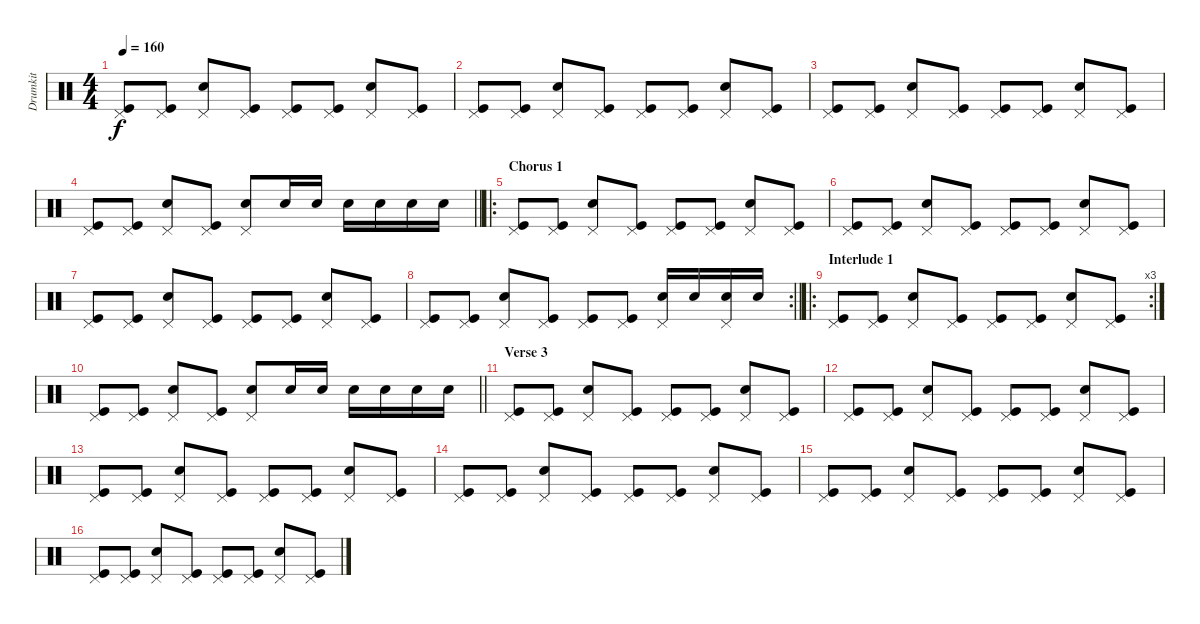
\track ("Drumkit" "Drumkit") {instrument percussion}
\staff {score}
\articulation defaults
\ts (4 4)
\tempo 160
\clef neutral
\ks c
("Pedal Hi-Hat (hit)" "Kick (hit)").8{dy f} ("Pedal Hi-Hat (hit)" "Kick (hit)").8 ("Pedal Hi-Hat (hit)" "Snare (hit) 2").8 ("Pedal Hi-Hat (hit)" "Kick (hit)").8 ("Pedal Hi-Hat (hit)" "Kick (hit)").8 ("Pedal Hi-Hat (hit)" "Kick (hit)").8 ("Pedal Hi-Hat (hit)" "Snare (hit) 2").8 ("Pedal Hi-Hat (hit)" "Kick (hit)").8 |
("Pedal Hi-Hat (hit)" "Kick (hit)").8 ("Pedal Hi-Hat (hit)" "Kick (hit)").8 ("Pedal Hi-Hat (hit)" "Snare (hit) 2").8 ("Pedal Hi-Hat (hit)" "Kick (hit)").8 ("Pedal Hi-Hat (hit)" "Kick (hit)").8 ("Pedal Hi-Hat (hit)" "Kick (hit)").8 ("Pedal Hi-Hat (hit)" "Snare (hit) 2").8 ("Pedal Hi-Hat (hit)" "Kick (hit)").8 |
("Pedal Hi-Hat (hit)" "Kick (hit)").8 ("Pedal Hi-Hat (hit)" "Kick (hit)").8 ("Pedal Hi-Hat (hit)" "Snare (hit) 2").8 ("Pedal Hi-Hat (hit)" "Kick (hit)").8 ("Pedal Hi-Hat (hit)" "Kick (hit)").8 ("Pedal Hi-Hat (hit)" "Kick (hit)").8 ("Pedal Hi-Hat (hit)" "Snare (hit) 2").8 ("Pedal Hi-Hat (hit)" "Kick (hit)").8 |
\barLineRight lightlight
("Pedal Hi-Hat (hit)" "Kick (hit)").8 ("Pedal Hi-Hat (hit)" "Kick (hit)").8 ("Pedal Hi-Hat (hit)" "Snare (hit) 2").8 ("Pedal Hi-Hat (hit)" "Kick (hit)").8 ("Pedal Hi-Hat (hit)" "Snare (hit) 2").8 "Snare (hit) 2".16 "Snare (hit) 2".16 "Snare (hit) 2".16 "Snare (hit) 2".16 "Snare (hit) 2".16 "Snare (hit) 2".16 |
\ro
\section ("" "Chorus 1")
("Pedal Hi-Hat (hit)" "Kick (hit)").8 ("Pedal Hi-Hat (hit)" "Kick (hit)").8 ("Pedal Hi-Hat (hit)" "Snare (hit) 2").8 ("Pedal Hi-Hat (hit)" "Kick (hit)").8 ("Pedal Hi-Hat (hit)" "Kick (hit)").8 ("Pedal Hi-Hat (hit)" "Kick (hit)").8 ("Pedal Hi-Hat (hit)" "Snare (hit) 2").8 ("Pedal Hi-Hat (hit)" "Kick (hit)").8 |
("Pedal Hi-Hat (hit)" "Kick (hit)").8 ("Pedal Hi-Hat (hit)" "Kick (hit)").8 ("Pedal Hi-Hat (hit)" "Snare (hit) 2").8 ("Pedal Hi-Hat (hit)" "Kick (hit)").8 ("Pedal Hi-Hat (hit)" "Kick (hit)").8 ("Pedal Hi-Hat (hit)" "Kick (hit)").8 ("Pedal Hi-Hat (hit)" "Snare (hit) 2").8 ("Pedal Hi-Hat (hit)" "Kick (hit)").8 |
("Pedal Hi-Hat (hit)" "Kick (hit)").8 ("Pedal Hi-Hat (hit)" "Kick (hit)").8 ("Pedal Hi-Hat (hit)" "Snare (hit) 2").8 ("Pedal Hi-Hat (hit)" "Kick (hit)").8 ("Pedal Hi-Hat (hit)" "Kick (hit)").8 ("Pedal Hi-Hat (hit)" "Kick (hit)").8 ("Pedal Hi-Hat (hit)" "Snare (hit) 2").8 ("Pedal Hi-Hat (hit)" "Kick (hit)").8 |
\rc 2
\barLineRight lightlight
("Pedal Hi-Hat (hit)" "Kick (hit)").8 ("Pedal Hi-Hat (hit)" "Kick (hit)").8 ("Pedal Hi-Hat (hit)" "Snare (hit) 2").8 ("Pedal Hi-Hat (hit)" "Kick (hit)").8 ("Pedal Hi-Hat (hit)" "Kick (hit)").8 ("Pedal Hi-Hat (hit)" "Kick (hit)").8 ("Pedal Hi-Hat (hit)" "Snare (hit) 2").16 "Snare (hit) 2".16 ("Pedal Hi-Hat (hit)" "Snare (hit) 2").16 "Snare (hit) 2".16 |
\ro
\rc 3
\section ("" "Interlude 1")
("Pedal Hi-Hat (hit)" "Kick (hit)").8 ("Pedal Hi-Hat (hit)" "Kick (hit)").8 ("Pedal Hi-Hat (hit)" "Snare (hit) 2").8 ("Pedal Hi-Hat (hit)" "Kick (hit)").8 ("Pedal Hi-Hat (hit)" "Kick (hit)").8 ("Pedal Hi-Hat (hit)" "Kick (hit)").8 ("Pedal Hi-Hat (hit)" "Snare (hit) 2").8 ("Pedal Hi-Hat (hit)" "Kick (hit)").8 |
\barLineRight lightlight
("Pedal Hi-Hat (hit)" "Kick (hit)").8 ("Pedal Hi-Hat (hit)" "Kick (hit)").8 ("Pedal Hi-Hat (hit)" "Snare (hit) 2").8 ("Pedal Hi-Hat (hit)" "Kick (hit)").8 ("Pedal Hi-Hat (hit)" "Snare (hit) 2").8 "Snare (hit) 2".16 "Snare (hit) 2".16 "Snare (hit) 2".16 "Snare (hit) 2".16 "Snare (hit) 2".16 "Snare (hit) 2".16 |
\section ("" "Verse 3")
("Pedal Hi-Hat (hit)" "Kick (hit)").8 ("Pedal Hi-Hat (hit)" "Kick (hit)").8 ("Pedal Hi-Hat (hit)" "Snare (hit) 2").8 ("Pedal Hi-Hat (hit)" "Kick (hit)").8 ("Pedal Hi-Hat (hit)" "Kick (hit)").8 ("Pedal Hi-Hat (hit)" "Kick (hit)").8 ("Pedal Hi-Hat (hit)" "Snare (hit) 2").8 ("Pedal Hi-Hat (hit)" "Kick (hit)").8 |
("Pedal Hi-Hat (hit)" "Kick (hit)").8 ("Pedal Hi-Hat (hit)" "Kick (hit)").8 ("Pedal Hi-Hat (hit)" "Snare (hit) 2").8 ("Pedal Hi-Hat (hit)" "Kick (hit)").8 ("Pedal Hi-Hat (hit)" "Kick (hit)").8 ("Pedal Hi-Hat (hit)" "Kick (hit)").8 ("Pedal Hi-Hat (hit)" "Snare (hit) 2").8 ("Pedal Hi-Hat (hit)" "Kick (hit)").8 |
("Pedal Hi-Hat (hit)" "Kick (hit)").8 ("Pedal Hi-Hat (hit)" "Kick (hit)").8 ("Pedal Hi-Hat (hit)" "Snare (hit) 2").8 ("Pedal Hi-Hat (hit)" "Kick (hit)").8 ("Pedal Hi-Hat (hit)" "Kick (hit)").8 ("Pedal Hi-Hat (hit)" "Kick (hit)").8 ("Pedal Hi-Hat (hit)" "Snare (hit) 2").8 ("Pedal Hi-Hat (hit)" "Kick (hit)").8 |
("Pedal Hi-Hat (hit)" "Kick (hit)").8 ("Pedal Hi-Hat (hit)" "Kick (hit)").8 ("Pedal Hi-Hat (hit)" "Snare (hit) 2").8 ("Pedal Hi-Hat (hit)" "Kick (hit)").8 ("Pedal Hi-Hat (hit)" "Kick (hit)").8 ("Pedal Hi-Hat (hit)" "Kick (hit)").8 ("Pedal Hi-Hat (hit)" "Snare (hit) 2").8 ("Pedal Hi-Hat (hit)" "Kick (hit)").8 |
("Pedal Hi-Hat (hit)" "Kick (hit)").8 ("Pedal Hi-Hat (hit)" "Kick (hit)").8 ("Pedal Hi-Hat (hit)" "Snare (hit) 2").8 ("Pedal Hi-Hat (hit)" "Kick (hit)").8 ("Pedal Hi-Hat (hit)" "Kick (hit)").8 ("Pedal Hi-Hat (hit)" "Kick (hit)").8 ("Pedal Hi-Hat (hit)" "Snare (hit) 2").8 ("Pedal Hi-Hat (hit)" "Kick (hit)").8 |
("Pedal Hi-Hat (hit)" "Kick (hit)").8 ("Pedal Hi-Hat (hit)" "Kick (hit)").8 ("Pedal Hi-Hat (hit)" "Snare (hit) 2").8 ("Pedal Hi-Hat (hit)" "Kick (hit)").8 ("Pedal Hi-Hat (hit)" "Kick (hit)").8 ("Pedal Hi-Hat (hit)" "Kick (hit)").8 ("Pedal Hi-Hat (hit)" "Snare (hit) 2").8 ("Pedal Hi-Hat (hit)" "Kick (hit)").8
